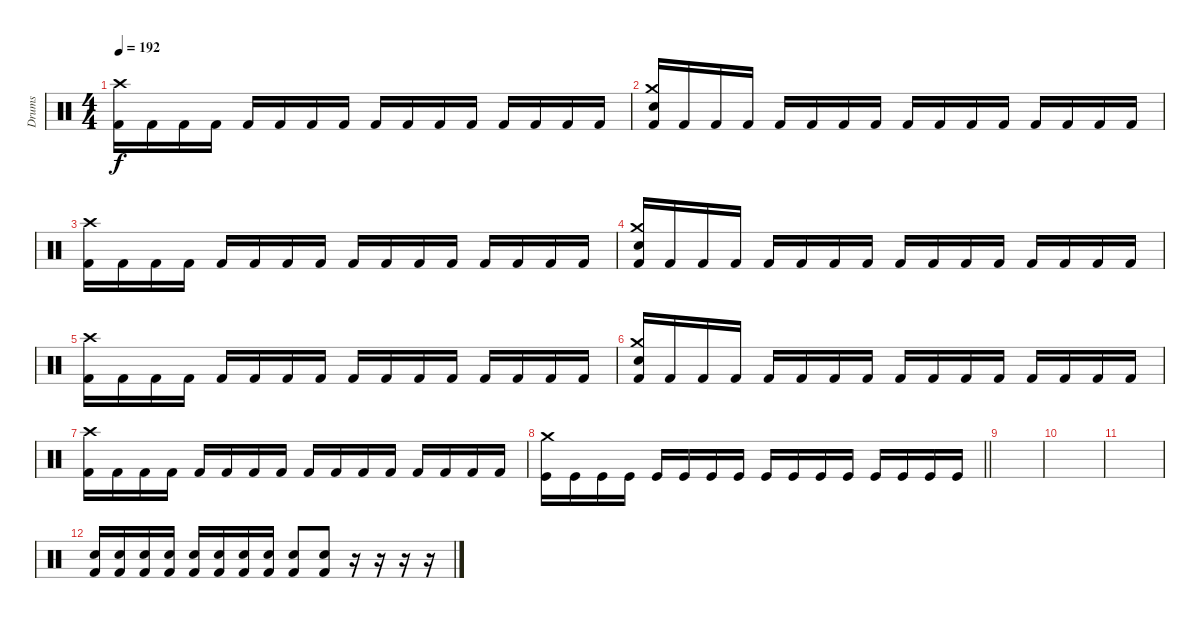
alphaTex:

\track ("Drums" "Drums") {instrument percussion}
\staff {score}
\articulation defaults
\ts (4 4)
\tempo 192
\clef neutral
\ks c
("Crash high (hit)" "Kick (hit) 2").16{dy f} "Kick (hit) 2".16 "Kick (hit) 2".16 "Kick (hit) 2".16 "Kick (hit) 2".16 "Kick (hit) 2".16 "Kick (hit) 2".16 "Kick (hit) 2".16 "Kick (hit) 2".16 "Kick (hit) 2".16 "Kick (hit) 2".16 "Kick (hit) 2".16 "Kick (hit) 2".16 "Kick (hit) 2".16 "Kick (hit) 2".16 "Kick (hit) 2".16 |
("Crash medium (hit)" "Electric Snare (hit)" "Kick (hit) 2").16 "Kick (hit) 2".16 "Kick (hit) 2".16 "Kick (hit) 2".16 "Kick (hit) 2".16 "Kick (hit) 2".16 "Kick (hit) 2".16 "Kick (hit) 2".16 "Kick (hit) 2".16 "Kick (hit) 2".16 "Kick (hit) 2".16 "Kick (hit) 2".16 "Kick (hit) 2".16 "Kick (hit) 2".16 "Kick (hit) 2".16 "Kick (hit) 2".16 |
("Crash high (hit)" "Kick (hit) 2").16 "Kick (hit) 2".16 "Kick (hit) 2".16 "Kick (hit) 2".16 "Kick (hit) 2".16 "Kick (hit) 2".16 "Kick (hit) 2".16 "Kick (hit) 2".16 "Kick (hit) 2".16 "Kick (hit) 2".16 "Kick (hit) 2".16 "Kick (hit) 2".16 "Kick (hit) 2".16 "Kick (hit) 2".16 "Kick (hit) 2".16 "Kick (hit) 2".16 |
("Crash medium (hit)" "Electric Snare (hit)" "Kick (hit) 2").16 "Kick (hit) 2".16 "Kick (hit) 2".16 "Kick (hit) 2".16 "Kick (hit) 2".16 "Kick (hit) 2".16 "Kick (hit) 2".16 "Kick (hit) 2".16 "Kick (hit) 2".16 "Kick (hit) 2".16 "Kick (hit) 2".16 "Kick (hit) 2".16 "Kick (hit) 2".16 "Kick (hit) 2".16 "Kick (hit) 2".16 "Kick (hit) 2".16 |
("Crash high (hit)" "Kick (hit) 2").16 "Kick (hit) 2".16 "Kick (hit) 2".16 "Kick (hit) 2".16 "Kick (hit) 2".16 "Kick (hit) 2".16 "Kick (hit) 2".16 "Kick (hit) 2".16 "Kick (hit) 2".16 "Kick (hit) 2".16 "Kick (hit) 2".16 "Kick (hit) 2".16 "Kick (hit) 2".16 "Kick (hit) 2".16 "Kick (hit) 2".16 "Kick (hit) 2".16 |
("Crash medium (hit)" "Electric Snare (hit)" "Kick (hit) 2").16 "Kick (hit) 2".16 "Kick (hit) 2".16 "Kick (hit) 2".16 "Kick (hit) 2".16 "Kick (hit) 2".16 "Kick (hit) 2".16 "Kick (hit) 2".16 "Kick (hit) 2".16 "Kick (hit) 2".16 "Kick (hit) 2".16 "Kick (hit) 2".16 "Kick (hit) 2".16 "Kick (hit) 2".16 "Kick (hit) 2".16 "Kick (hit) 2".16 |
("Crash high (hit)" "Kick (hit) 2").16 "Kick (hit) 2".16 "Kick (hit) 2".16 "Kick (hit) 2".16 "Kick (hit) 2".16 "Kick (hit) 2".16 "Kick (hit) 2".16 "Kick (hit) 2".16 "Kick (hit) 2".16 "Kick (hit) 2".16 "Kick (hit) 2".16 "Kick (hit) 2".16 "Kick (hit) 2".16 "Kick (hit) 2".16 "Kick (hit) 2".16 "Kick (hit) 2".16 |
\barLineRight lightlight
("Crash medium (hit)" "Kick (hit)").16 "Kick (hit)".16 "Kick (hit)".16 "Kick (hit)".16 "Kick (hit)".16 "Kick (hit)".16 "Kick (hit)".16 "Kick (hit)".16 "Kick (hit)".16 "Kick (hit)".16 "Kick (hit)".16 "Kick (hit)".16 "Kick (hit)".16 "Kick (hit)".16 "Kick (hit)".16 "Kick (hit)".16 |
|
|
|
("Kick (hit) 2" "Electric Snare (hit)").16 ("Kick (hit) 2" "Electric Snare (hit)").16 ("Kick (hit) 2" "Electric Snare (hit)").16 ("Kick (hit) 2" "Electric Snare (hit)").16 ("Kick (hit) 2" "Electric Snare (hit)").16 ("Kick (hit) 2" "Electric Snare (hit)").16 ("Kick (hit) 2" "Electric Snare (hit)").16 ("Kick (hit) 2" "Electric Snare (hit)").16 ("Kick (hit) 2" "Electric Snare (hit)").8 ("Kick (hit) 2" "Electric Snare (hit)").8 r.16 r.16 r.16 r.16
